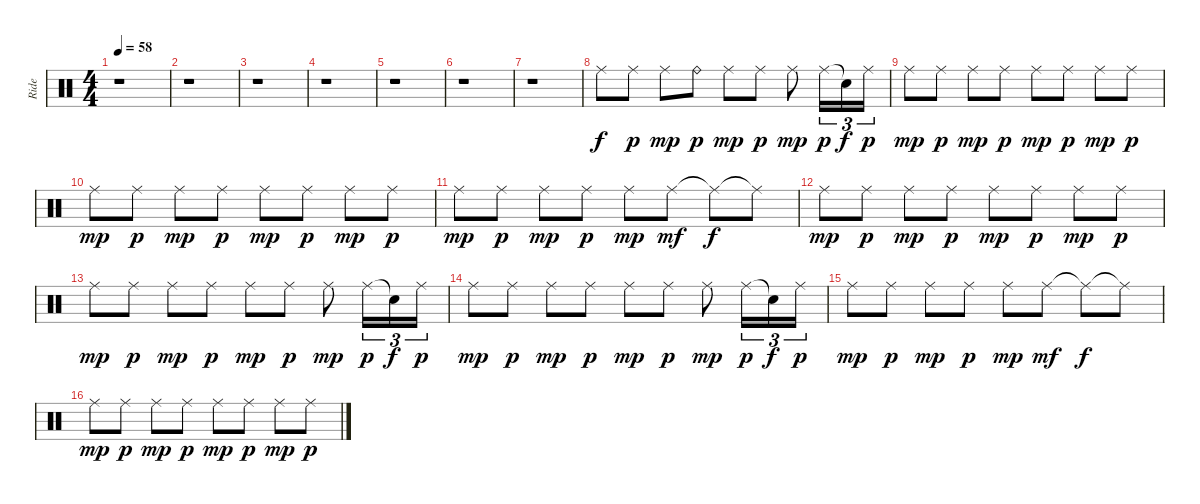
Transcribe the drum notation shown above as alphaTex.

\track ("Ride" "Ride") {instrument percussion}
\staff {score}
\articulation defaults
\ts (4 4)
\tempo 58
\clef neutral
\ks c
r.1{dy f} |
r.1 |
r.1 |
r.1 |
r.1 |
r.1 |
r.1 |
"Ride (middle)".8 "Ride (middle)".8{dy p} "Ride (middle)".8{dy mp} "Ride (bell)".8{dy p} "Ride (middle)".8{dy mp} "Ride (middle)".8{dy p} "Ride (middle)".8{dy mp} "Ride (middle)".16{tu (3 2) dy p} "Snare (hit)"{t}.16{tu (3 2) dy f} "Ride (middle)".16{tu (3 2) dy p} |
"Ride (middle)".8{dy mp} "Ride (middle)".8{dy p} "Ride (middle)".8{dy mp} "Ride (middle)".8{dy p} "Ride (middle)".8{dy mp} "Ride (middle)".8{dy p} "Ride (middle)".8{dy mp} "Ride (middle)".8{dy p} |
"Ride (middle)".8{dy mp} "Ride (middle)".8{dy p} "Ride (middle)".8{dy mp} "Ride (middle)".8{dy p} "Ride (middle)".8{dy mp} "Ride (middle)".8{dy p} "Ride (middle)".8{dy mp} "Ride (middle)".8{dy p} |
"Ride (middle)".8{dy mp} "Ride (middle)".8{dy p} "Ride (middle)".8{dy mp} "Ride (middle)".8{dy p} "Ride (middle)".8{dy mp} "Ride (middle)".8{dy mf} "Ride (middle)"{t}.8{dy f} "Ride (middle)"{t}.8 |
"Ride (middle)".8{dy mp} "Ride (middle)".8{dy p} "Ride (middle)".8{dy mp} "Ride (middle)".8{dy p} "Ride (middle)".8{dy mp} "Ride (middle)".8{dy p} "Ride (middle)".8{dy mp} "Ride (middle)".8{dy p} |
"Ride (middle)".8{dy mp} "Ride (middle)".8{dy p} "Ride (middle)".8{dy mp} "Ride (middle)".8{dy p} "Ride (middle)".8{dy mp} "Ride (middle)".8{dy p} "Ride (middle)".8{dy mp} "Ride (middle)".16{tu (3 2) dy p} "Snare (hit)"{t}.16{tu (3 2) dy f} "Ride (middle)".16{tu (3 2) dy p} |
"Ride (middle)".8{dy mp} "Ride (middle)".8{dy p} "Ride (middle)".8{dy mp} "Ride (middle)".8{dy p} "Ride (middle)".8{dy mp} "Ride (middle)".8{dy p} "Ride (middle)".8{dy mp} "Ride (middle)".16{tu (3 2) dy p} "Snare (hit)"{t}.16{tu (3 2) dy f} "Ride (middle)".16{tu (3 2) dy p} |
"Ride (middle)".8{dy mp} "Ride (middle)".8{dy p} "Ride (middle)".8{dy mp} "Ride (middle)".8{dy p} "Ride (middle)".8{dy mp} "Ride (middle)".8{dy mf} "Ride (middle)"{t}.8{dy f} "Ride (middle)"{t}.8 |
"Ride (middle)".8{dy mp} "Ride (middle)".8{dy p} "Ride (middle)".8{dy mp} "Ride (middle)".8{dy p} "Ride (middle)".8{dy mp} "Ride (middle)".8{dy p} "Ride (middle)".8{dy mp} "Ride (middle)".8{dy p}
